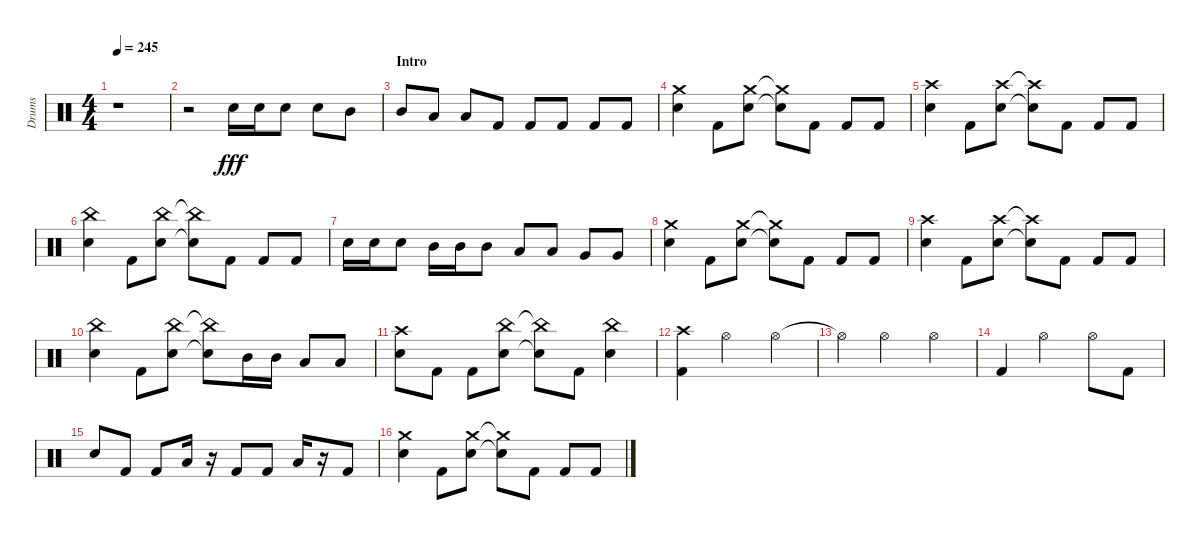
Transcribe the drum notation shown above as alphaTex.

\track ("Drums" "Drums") {instrument percussion}
\staff {score}
\articulation defaults
\ts (4 4)
\tempo 245
\clef neutral
\ks aminor
r.1{dy fff} |
r.2 "Snare (hit) 2".16 "Snare (hit) 2".16 "Snare (hit) 2".8 "Snare (hit) 2".8 "Mid Tom (hit)".8 |
\section ("" "Intro")
"Mid Tom (hit)".8 "Low Tom (hit)".8 "Low Tom (hit)".8 "Kick (hit) 2".8 "Kick (hit) 2".8 "Kick (hit) 2".8 "Kick (hit) 2".8 "Kick (hit) 2".8 |
("Snare (hit) 2" "Crash medium (hit)").4 "Kick (hit) 2".8 ("Snare (hit) 2" "Crash medium (hit)").8 ("Snare (hit) 2"{t} "Crash medium (hit)"{t}).8 "Kick (hit) 2".8 "Kick (hit) 2".8 "Kick (hit) 2".8 |
("Snare (hit) 2" "Crash high (hit)").4 "Kick (hit) 2".8 ("Snare (hit) 2" "Crash high (hit)").8 ("Snare (hit) 2"{t} "Crash high (hit)"{t}).8 "Kick (hit) 2".8 "Kick (hit) 2".8 "Kick (hit) 2".8 |
("Snare (hit) 2" "China (hit)").4 "Kick (hit) 2".8 ("Snare (hit) 2" "China (hit)").8 ("Snare (hit) 2"{t} "China (hit)"{t}).8 "Kick (hit) 2".8 "Kick (hit) 2".8 "Kick (hit) 2".8 |
"Snare (hit) 2".16 "Snare (hit) 2".16 "Snare (hit) 2".8 "Mid Tom (hit)".16 "Mid Tom (hit)".16 "Mid Tom (hit)".8 "Low Tom (hit)".8 "Low Tom (hit)".8 "Very Low Tom (hit)".8 "Very Low Tom (hit)".8 |
("Snare (hit) 2" "Crash medium (hit)").4 "Kick (hit) 2".8 ("Snare (hit) 2" "Crash medium (hit)").8 ("Snare (hit) 2"{t} "Crash medium (hit)"{t}).8 "Kick (hit) 2".8 "Kick (hit) 2".8 "Kick (hit) 2".8 |
("Snare (hit) 2" "Crash high (hit)").4 "Kick (hit) 2".8 ("Snare (hit) 2" "Crash high (hit)").8 ("Snare (hit) 2"{t} "Crash high (hit)"{t}).8 "Kick (hit) 2".8 "Kick (hit) 2".8 "Kick (hit) 2".8 |
("Snare (hit) 2" "China (hit)").4 "Kick (hit) 2".8 ("Snare (hit) 2" "China (hit)").8 ("Snare (hit) 2"{t} "China (hit)"{t}).8 "Mid Tom (hit)".16 "Mid Tom (hit)".16 "Low Tom (hit)".8 "Low Tom (hit)".8 |
("Snare (hit) 2" "Crash high (hit)").8 "Kick (hit) 2".8 "Kick (hit) 2".8 ("Snare (hit) 2" "China (hit)").8 ("Snare (hit) 2"{t} "China (hit)"{t}).8 "Kick (hit) 2".8 ("Snare (hit) 2" "China (hit)").4 |
("Kick (hit) 2" "Crash high (hit)").4 "Hi-Hat (open)".2 "Hi-Hat (open)".4 |
"Hi-Hat (open)"{t}.4 "Hi-Hat (open)".2 "Hi-Hat (open)".4 |
"Kick (hit) 2".4 "Hi-Hat (open)".2 "Hi-Hat (open)".8 "Kick (hit) 2".8 |
"Snare (hit) 2".8 "Kick (hit) 2".8 "Kick (hit) 2".8 "Low Tom (hit)".16 r.16 "Kick (hit) 2".8 "Kick (hit) 2".8 "Low Tom (hit)".16 r.16 "Kick (hit) 2".8 |
("Snare (hit) 2" "Crash medium (hit)").4 "Kick (hit) 2".8 ("Snare (hit) 2" "Crash medium (hit)").8 ("Snare (hit) 2"{t} "Crash medium (hit)"{t}).8 "Kick (hit) 2".8 "Kick (hit) 2".8 "Kick (hit) 2".8
